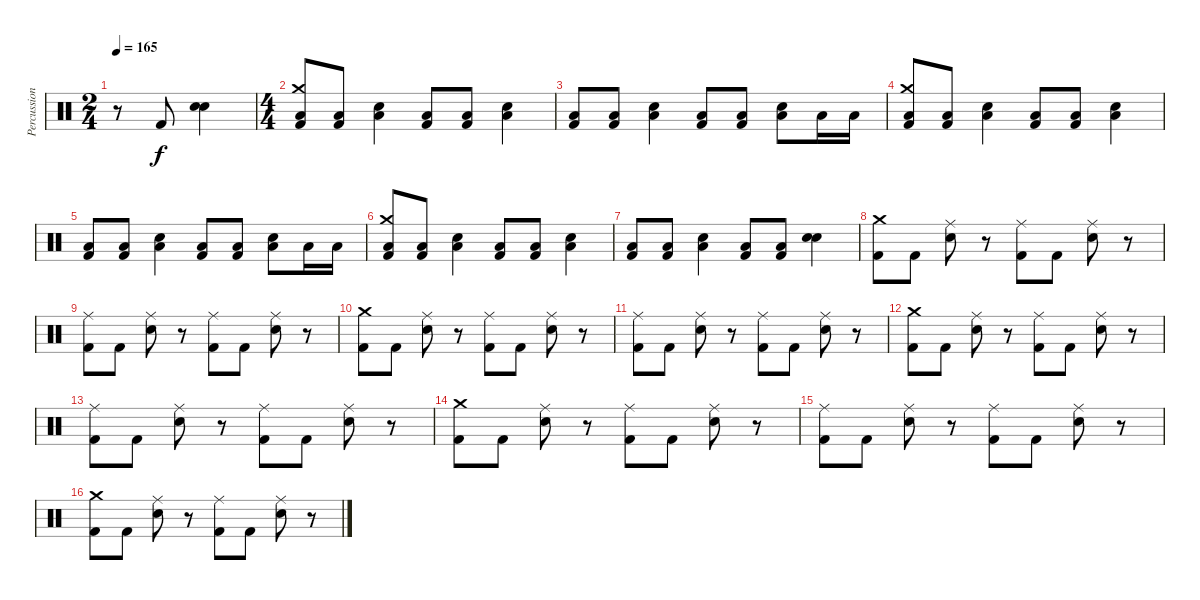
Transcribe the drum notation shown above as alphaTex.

\track ("Percussion" "Percussion") {instrument percussion}
\staff {score}
\articulation defaults
\ts (2 4)
\tempo 165
\clef neutral
\ks c
r.8{dy f} "Kick (hit) 2".8 ("Electric Snare (hit)" "Electric Snare (hit)").4{bu 240} |
\ts (4 4)
("Crash medium (hit)" "Low Floor Tom (hit)" "Kick (hit) 2").8 ("Low Floor Tom (hit)" "Kick (hit) 2").8 ("Low Floor Tom (hit)" "Electric Snare (hit)").4 ("Low Floor Tom (hit)" "Kick (hit) 2").8 ("Low Floor Tom (hit)" "Kick (hit) 2").8 ("Low Floor Tom (hit)" "Electric Snare (hit)").4 |
("Low Floor Tom (hit)" "Kick (hit) 2").8 ("Low Floor Tom (hit)" "Kick (hit) 2").8 ("Low Floor Tom (hit)" "Electric Snare (hit)").4 ("Low Floor Tom (hit)" "Kick (hit) 2").8 ("Low Floor Tom (hit)" "Kick (hit) 2").8 ("Low Floor Tom (hit)" "Electric Snare (hit)").8 "Low Floor Tom (hit)".16 "Low Floor Tom (hit)".16 |
("Crash medium (hit)" "Low Floor Tom (hit)" "Kick (hit) 2").8 ("Low Floor Tom (hit)" "Kick (hit) 2").8 ("Low Floor Tom (hit)" "Electric Snare (hit)").4 ("Low Floor Tom (hit)" "Kick (hit) 2").8 ("Low Floor Tom (hit)" "Kick (hit) 2").8 ("Low Floor Tom (hit)" "Electric Snare (hit)").4 |
("Low Floor Tom (hit)" "Kick (hit) 2").8 ("Low Floor Tom (hit)" "Kick (hit) 2").8 ("Low Floor Tom (hit)" "Electric Snare (hit)").4 ("Low Floor Tom (hit)" "Kick (hit) 2").8 ("Low Floor Tom (hit)" "Kick (hit) 2").8 ("Low Floor Tom (hit)" "Electric Snare (hit)").8 "Low Floor Tom (hit)".16 "Low Floor Tom (hit)".16 |
("Crash medium (hit)" "Low Floor Tom (hit)" "Kick (hit) 2").8 ("Low Floor Tom (hit)" "Kick (hit) 2").8 ("Low Floor Tom (hit)" "Electric Snare (hit)").4 ("Low Floor Tom (hit)" "Kick (hit) 2").8 ("Low Floor Tom (hit)" "Kick (hit) 2").8 ("Low Floor Tom (hit)" "Electric Snare (hit)").4 |
("Low Floor Tom (hit)" "Kick (hit) 2").8 ("Low Floor Tom (hit)" "Kick (hit) 2").8 ("Low Floor Tom (hit)" "Electric Snare (hit)").4 ("Low Floor Tom (hit)" "Kick (hit) 2").8 ("Low Floor Tom (hit)" "Kick (hit) 2").8 ("Electric Snare (hit)" "Electric Snare (hit)").4{bu 240} |
("Crash medium (hit)" "Kick (hit) 2").8 "Kick (hit) 2".8 ("Ride (middle)" "Electric Snare (hit)").8 r.8 ("Ride (middle)" "Kick (hit) 2").8 "Kick (hit) 2".8 ("Ride (middle)" "Electric Snare (hit)").8 r.8 |
("Ride (middle)" "Kick (hit) 2").8 "Kick (hit) 2".8 ("Ride (middle)" "Electric Snare (hit)").8 r.8 ("Ride (middle)" "Kick (hit) 2").8 "Kick (hit) 2".8 ("Ride (middle)" "Electric Snare (hit)").8 r.8 |
("Crash medium (hit)" "Kick (hit) 2").8 "Kick (hit) 2".8 ("Ride (middle)" "Electric Snare (hit)").8 r.8 ("Ride (middle)" "Kick (hit) 2").8 "Kick (hit) 2".8 ("Ride (middle)" "Electric Snare (hit)").8 r.8 |
("Ride (middle)" "Kick (hit) 2").8 "Kick (hit) 2".8 ("Ride (middle)" "Electric Snare (hit)").8 r.8 ("Ride (middle)" "Kick (hit) 2").8 "Kick (hit) 2".8 ("Ride (middle)" "Electric Snare (hit)").8 r.8 |
("Crash medium (hit)" "Kick (hit) 2").8 "Kick (hit) 2".8 ("Ride (middle)" "Electric Snare (hit)").8 r.8 ("Ride (middle)" "Kick (hit) 2").8 "Kick (hit) 2".8 ("Ride (middle)" "Electric Snare (hit)").8 r.8 |
("Ride (middle)" "Kick (hit) 2").8 "Kick (hit) 2".8 ("Ride (middle)" "Electric Snare (hit)").8 r.8 ("Ride (middle)" "Kick (hit) 2").8 "Kick (hit) 2".8 ("Ride (middle)" "Electric Snare (hit)").8 r.8 |
("Crash medium (hit)" "Kick (hit) 2").8 "Kick (hit) 2".8 ("Ride (middle)" "Electric Snare (hit)").8 r.8 ("Ride (middle)" "Kick (hit) 2").8 "Kick (hit) 2".8 ("Ride (middle)" "Electric Snare (hit)").8 r.8 |
("Ride (middle)" "Kick (hit) 2").8 "Kick (hit) 2".8 ("Ride (middle)" "Electric Snare (hit)").8 r.8 ("Ride (middle)" "Kick (hit) 2").8 "Kick (hit) 2".8 ("Ride (middle)" "Electric Snare (hit)").8 r.8 |
("Crash medium (hit)" "Kick (hit) 2").8 "Kick (hit) 2".8 ("Ride (middle)" "Electric Snare (hit)").8 r.8 ("Ride (middle)" "Kick (hit) 2").8 "Kick (hit) 2".8 ("Ride (middle)" "Electric Snare (hit)").8 r.8
